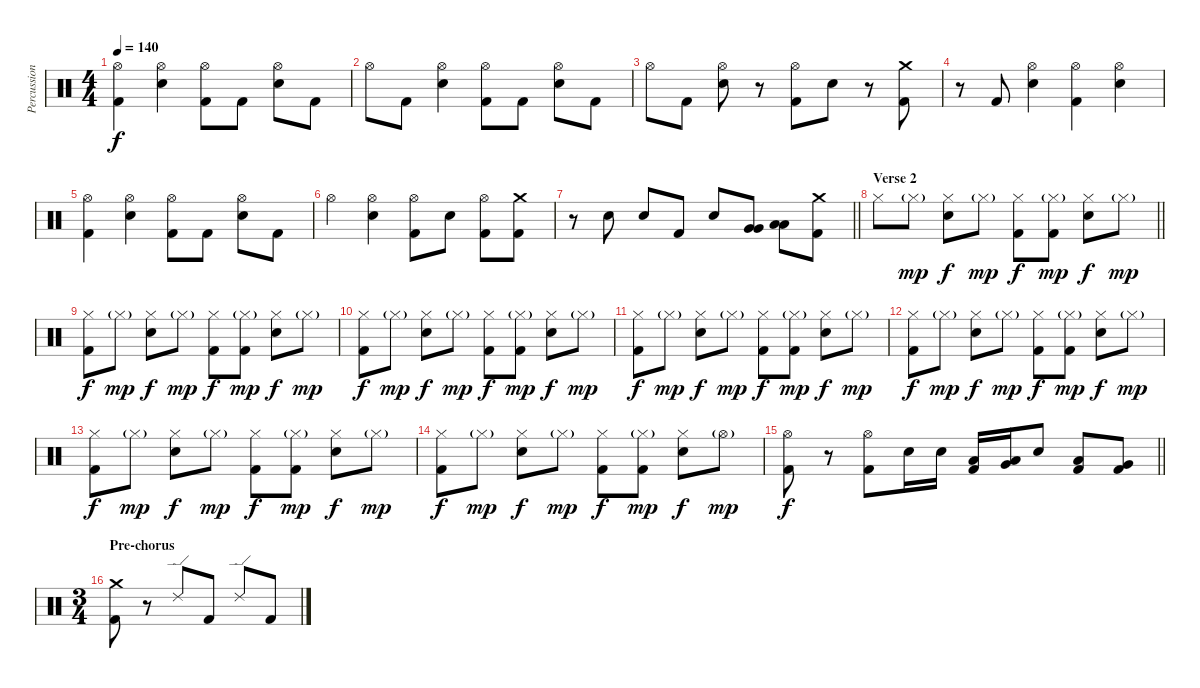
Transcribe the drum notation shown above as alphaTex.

\track ("Percussion" "Percussion") {instrument percussion}
\staff {score}
\articulation defaults
\ts (4 4)
\tempo 140
\clef neutral
\ks c
("Hi-Hat (open)" "Kick (hit) 2").4{dy f} ("Hi-Hat (open)" "Electric Snare (hit)").4 ("Hi-Hat (open)" "Kick (hit) 2").8 "Kick (hit) 2".8 ("Hi-Hat (open)" "Electric Snare (hit)").8 "Kick (hit) 2".8 |
"Hi-Hat (open)".8 "Kick (hit) 2".8 ("Hi-Hat (open)" "Electric Snare (hit)").4 ("Hi-Hat (open)" "Kick (hit) 2").8 "Kick (hit) 2".8 ("Hi-Hat (open)" "Electric Snare (hit)").8 "Kick (hit) 2".8 |
"Hi-Hat (open)".8 "Kick (hit) 2".8 ("Hi-Hat (open)" "Electric Snare (hit)").8 r.8 ("Hi-Hat (open)" "Kick (hit) 2").8 "Electric Snare (hit)".8 r.8 ("Crash medium (hit)" "Kick (hit) 2").8 |
r.8 "Kick (hit) 2".8 ("Hi-Hat (open)" "Electric Snare (hit)").4 ("Hi-Hat (open)" "Kick (hit) 2").4 ("Hi-Hat (open)" "Electric Snare (hit)").4 |
("Hi-Hat (open)" "Kick (hit) 2").4 ("Hi-Hat (open)" "Electric Snare (hit)").4 ("Hi-Hat (open)" "Kick (hit) 2").8 "Kick (hit) 2".8 ("Hi-Hat (open)" "Electric Snare (hit)").8 "Kick (hit) 2".8 |
"Hi-Hat (open)".4 ("Hi-Hat (open)" "Electric Snare (hit)").4 ("Hi-Hat (open)" "Kick (hit) 2").8 "Electric Snare (hit)".8 ("Hi-Hat (open)" "Kick (hit) 2").8 ("Crash medium (hit)" "Kick (hit) 2").8 |
\barLineRight lightlight
r.8 "Electric Snare (hit)".8 "Electric Snare (hit)".8 "Kick (hit) 2".8 "Electric Snare (hit)".8 ("Very Low Tom (hit)" "Very Low Tom (hit)").8 ("Low Tom (hit)" "Low Tom (hit)").8 ("Crash medium (hit)" "Kick (hit) 2").8 |
\section ("" "Verse 2")
\barLineRight lightlight "Hi-Hat (closed)".8 "Hi-Hat (closed)"{g}.8{dy mp}
("Hi-Hat (closed)" "Electric Snare (hit)").8{dy f} "Hi-Hat (closed)"{g}.8{dy mp} ("Hi-Hat (closed)" "Kick (hit) 2").8{dy f} ("Hi-Hat (closed)"{g} "Kick (hit) 2").8{dy mp} ("Hi-Hat (closed)" "Electric Snare (hit)").8{dy f} "Hi-Hat (closed)"{g}.8{dy mp} |
("Hi-Hat (closed)" "Kick (hit) 2").8{dy f} "Hi-Hat (closed)"{g}.8{dy mp} ("Hi-Hat (closed)" "Electric Snare (hit)").8{dy f} "Hi-Hat (closed)"{g}.8{dy mp} ("Hi-Hat (closed)" "Kick (hit) 2").8{dy f} ("Hi-Hat (closed)"{g} "Kick (hit) 2").8{dy mp} ("Hi-Hat (closed)" "Electric Snare (hit)").8{dy f} "Hi-Hat (closed)"{g}.8{dy mp} |
("Hi-Hat (closed)" "Kick (hit) 2").8{dy f} "Hi-Hat (closed)"{g}.8{dy mp} ("Hi-Hat (closed)" "Electric Snare (hit)").8{dy f} "Hi-Hat (closed)"{g}.8{dy mp} ("Hi-Hat (closed)" "Kick (hit) 2").8{dy f} ("Hi-Hat (closed)"{g} "Kick (hit) 2").8{dy mp} ("Hi-Hat (closed)" "Electric Snare (hit)").8{dy f} "Hi-Hat (closed)"{g}.8{dy mp} |
("Hi-Hat (closed)" "Kick (hit) 2").8{dy f} "Hi-Hat (closed)"{g}.8{dy mp} ("Hi-Hat (closed)" "Electric Snare (hit)").8{dy f} "Hi-Hat (closed)"{g}.8{dy mp} ("Hi-Hat (closed)" "Kick (hit) 2").8{dy f} ("Hi-Hat (closed)"{g} "Kick (hit) 2").8{dy mp} ("Hi-Hat (closed)" "Electric Snare (hit)").8{dy f} "Hi-Hat (closed)"{g}.8{dy mp} |
("Hi-Hat (closed)" "Kick (hit) 2").8{dy f} "Hi-Hat (closed)"{g}.8{dy mp} ("Hi-Hat (closed)" "Electric Snare (hit)").8{dy f} "Hi-Hat (closed)"{g}.8{dy mp} ("Hi-Hat (closed)" "Kick (hit) 2").8{dy f} ("Hi-Hat (closed)"{g} "Kick (hit) 2").8{dy mp} ("Hi-Hat (closed)" "Electric Snare (hit)").8{dy f} "Hi-Hat (closed)"{g}.8{dy mp} |
("Hi-Hat (closed)" "Kick (hit) 2").8{dy f} "Hi-Hat (closed)"{g}.8{dy mp} ("Hi-Hat (closed)" "Electric Snare (hit)").8{dy f} "Hi-Hat (closed)"{g}.8{dy mp} ("Hi-Hat (closed)" "Kick (hit) 2").8{dy f} ("Hi-Hat (closed)"{g} "Kick (hit) 2").8{dy mp} ("Hi-Hat (closed)" "Electric Snare (hit)").8{dy f} "Hi-Hat (closed)"{g}.8{dy mp} |
("Hi-Hat (closed)" "Kick (hit) 2").8{dy f} "Hi-Hat (closed)"{g}.8{dy mp} ("Hi-Hat (closed)" "Electric Snare (hit)").8{dy f} "Hi-Hat (closed)"{g}.8{dy mp} ("Hi-Hat (closed)" "Kick (hit) 2").8{dy f} ("Hi-Hat (closed)"{g} "Kick (hit) 2").8{dy mp} ("Hi-Hat (closed)" "Electric Snare (hit)").8{dy f} "Hi-Hat (open)"{g}.8{dy mp} |
\barLineRight lightlight
("Hi-Hat (open)" "Kick (hit) 2").8{dy f} r.8 ("Hi-Hat (open)" "Kick (hit) 2").8 "Electric Snare (hit)".16 "Electric Snare (hit)".16 ("Low Floor Tom (hit)" "Kick (hit) 2").16 ("Low Floor Tom (hit)" "Very Low Tom (hit)").16 "Electric Snare (hit)".8 ("Low Floor Tom (hit)" "Kick (hit) 2").8 ("Very Low Tom (hit)" "Kick (hit) 2").8 |
\ts (3 4)
\section ("" "Pre-chorus")
("Crash medium (hit)" "Kick (hit) 2").8 r.8 "Ride (edge) 2".8 "Kick (hit) 2".8 "Ride (edge) 2".8 "Kick (hit) 2".8
